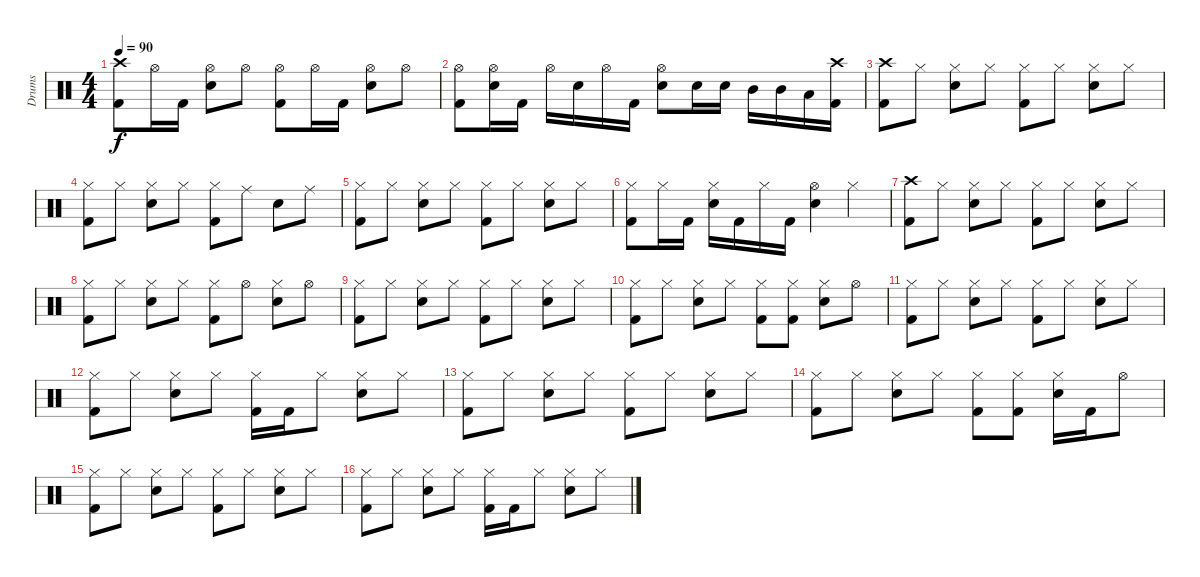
\track ("Drums" "Drums") {instrument percussion}
\staff {score}
\articulation defaults
\ts (4 4)
\tempo 90
\clef neutral
\ks c
("Crash high (hit)" "Kick (hit) 2").8{dy f} "Hi-Hat (open)".16 "Kick (hit) 2".16 ("Hi-Hat (open)" "Electric Snare (hit)").8 "Hi-Hat (open)".8 ("Hi-Hat (open)" "Kick (hit) 2").8 "Hi-Hat (open)".16 "Kick (hit) 2".16 ("Hi-Hat (open)" "Electric Snare (hit)").8 "Hi-Hat (open)".8 |
("Hi-Hat (open)" "Kick (hit) 2").8 ("Hi-Hat (open)" "Electric Snare (hit)").16 "Kick (hit) 2".16 "Hi-Hat (open)".16 "Electric Snare (hit)".16 "Hi-Hat (open)".16 "Kick (hit) 2".16 ("Hi-Hat (open)" "Electric Snare (hit)").8 "Electric Snare (hit)".16 "Electric Snare (hit)".16 "Mid Tom (hit)".16 "Mid Tom (hit)".16 "Low Tom (hit)".16 ("Crash high (hit)" "Kick (hit) 2").16 |
("Crash high (hit)" "Kick (hit) 2").8 "Hi-Hat (closed)".8 ("Hi-Hat (closed)" "Electric Snare (hit)").8 "Hi-Hat (closed)".8 ("Hi-Hat (closed)" "Kick (hit) 2").8 "Hi-Hat (closed)".8 ("Hi-Hat (closed)" "Electric Snare (hit)").8 "Hi-Hat (closed)".8 |
("Hi-Hat (closed)" "Kick (hit) 2").8 "Hi-Hat (closed)".8 ("Hi-Hat (closed)" "Electric Snare (hit)").8 "Hi-Hat (closed)".8 ("Hi-Hat (closed)" "Kick (hit) 2").8 "Ride (middle)".8 "Electric Snare (hit)".8 "Ride (middle)".8 |
("Hi-Hat (closed)" "Kick (hit) 2").8 "Hi-Hat (closed)".8 ("Hi-Hat (closed)" "Electric Snare (hit)").8 "Hi-Hat (closed)".8 ("Hi-Hat (closed)" "Kick (hit) 2").8 "Hi-Hat (closed)".8 ("Hi-Hat (closed)" "Electric Snare (hit)").8 "Hi-Hat (closed)".8 |
("Hi-Hat (closed)" "Kick (hit) 2").8 "Hi-Hat (closed)".16 "Kick (hit) 2".16 ("Hi-Hat (closed)" "Electric Snare (hit)").16 "Kick (hit) 2".16 "Hi-Hat (closed)".16 "Kick (hit) 2".16 ("Hi-Hat (open)" "Electric Snare (hit)").4 "Hi-Hat (closed)".4 |
("Crash high (hit)" "Kick (hit) 2").8 "Hi-Hat (closed)".8 ("Hi-Hat (closed)" "Electric Snare (hit)").8 "Hi-Hat (closed)".8 ("Hi-Hat (closed)" "Kick (hit) 2").8 "Hi-Hat (closed)".8 ("Hi-Hat (closed)" "Electric Snare (hit)").8 "Hi-Hat (closed)".8 |
("Hi-Hat (closed)" "Kick (hit) 2").8 "Hi-Hat (closed)".8 ("Hi-Hat (closed)" "Electric Snare (hit)").8 "Hi-Hat (closed)".8 ("Hi-Hat (closed)" "Kick (hit) 2").8 "Hi-Hat (open)".8 ("Hi-Hat (closed)" "Electric Snare (hit)").8 "Hi-Hat (open)".8 |
("Hi-Hat (closed)" "Kick (hit) 2").8 "Hi-Hat (closed)".8 ("Hi-Hat (closed)" "Electric Snare (hit)").8 "Hi-Hat (closed)".8 ("Hi-Hat (closed)" "Kick (hit) 2").8 "Hi-Hat (closed)".8 ("Hi-Hat (closed)" "Electric Snare (hit)").8 "Hi-Hat (closed)".8 |
("Hi-Hat (closed)" "Kick (hit) 2").8 "Hi-Hat (closed)".8 ("Hi-Hat (closed)" "Electric Snare (hit)").8 "Hi-Hat (closed)".8 ("Hi-Hat (closed)" "Kick (hit) 2").8 ("Hi-Hat (closed)" "Kick (hit) 2").8 ("Hi-Hat (closed)" "Electric Snare (hit)").8 "Hi-Hat (open)".8 |
("Hi-Hat (closed)" "Kick (hit) 2").8 "Hi-Hat (closed)".8 ("Hi-Hat (closed)" "Electric Snare (hit)").8 "Hi-Hat (closed)".8 ("Hi-Hat (closed)" "Kick (hit) 2").8 "Hi-Hat (closed)".8 ("Hi-Hat (closed)" "Electric Snare (hit)").8 "Hi-Hat (closed)".8 |
("Hi-Hat (closed)" "Kick (hit) 2").8 "Hi-Hat (closed)".8 ("Hi-Hat (closed)" "Electric Snare (hit)").8 "Hi-Hat (closed)".8 ("Hi-Hat (closed)" "Kick (hit) 2").16 "Kick (hit) 2".16 "Hi-Hat (closed)".8 ("Hi-Hat (closed)" "Electric Snare (hit)").8 "Hi-Hat (closed)".8 |
("Hi-Hat (closed)" "Kick (hit) 2").8 "Hi-Hat (closed)".8 ("Hi-Hat (closed)" "Electric Snare (hit)").8 "Hi-Hat (closed)".8 ("Hi-Hat (closed)" "Kick (hit) 2").8 "Hi-Hat (closed)".8 ("Hi-Hat (closed)" "Electric Snare (hit)").8 "Hi-Hat (closed)".8 |
("Hi-Hat (closed)" "Kick (hit) 2").8 "Hi-Hat (closed)".8 ("Hi-Hat (closed)" "Electric Snare (hit)").8 "Hi-Hat (closed)".8 ("Hi-Hat (closed)" "Kick (hit) 2").8 ("Hi-Hat (closed)" "Kick (hit) 2").8 ("Hi-Hat (closed)" "Electric Snare (hit)").16 "Kick (hit) 2".16 "Hi-Hat (open)".8 |
("Hi-Hat (closed)" "Kick (hit) 2").8 "Hi-Hat (closed)".8 ("Hi-Hat (closed)" "Electric Snare (hit)").8 "Hi-Hat (closed)".8 ("Hi-Hat (closed)" "Kick (hit) 2").8 "Hi-Hat (closed)".8 ("Hi-Hat (closed)" "Electric Snare (hit)").8 "Hi-Hat (closed)".8 |
("Hi-Hat (closed)" "Kick (hit) 2").8 "Hi-Hat (closed)".8 ("Hi-Hat (closed)" "Electric Snare (hit)").8 "Hi-Hat (closed)".8 ("Hi-Hat (closed)" "Kick (hit) 2").16 "Kick (hit) 2".16 "Hi-Hat (closed)".8 ("Hi-Hat (closed)" "Electric Snare (hit)").8 "Hi-Hat (closed)".8
